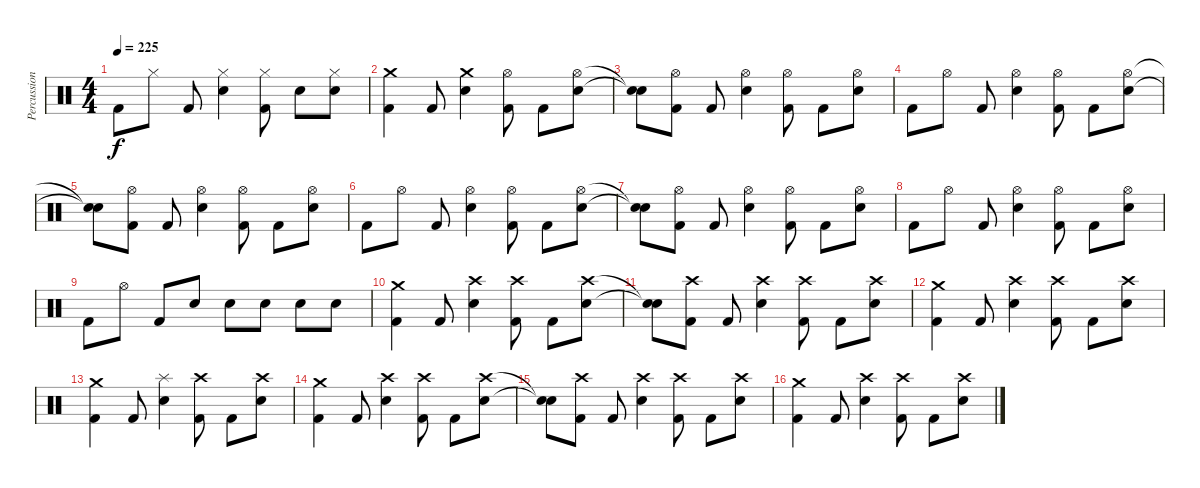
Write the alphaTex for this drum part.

\track ("Percussion" "Percussion") {instrument percussion}
\staff {score}
\articulation defaults
\ts (4 4)
\tempo 225
\clef neutral
\ks c "Kick (hit) 2".8{dy f} "Hi-Hat (closed)".8 "Kick (hit) 2".8
("Hi-Hat (closed)" "Snare (hit) 2").4 ("Hi-Hat (closed)" "Kick (hit) 2").8 "Snare (hit) 2".8 ("Hi-Hat (closed)" "Snare (hit) 2").8 |
("Crash medium (hit)" "Kick (hit) 2").4 "Kick (hit) 2".8 ("Crash medium (hit)" "Snare (hit) 2").4 ("Hi-Hat (open)" "Kick (hit) 2").8 "Kick (hit) 2".8 ("Hi-Hat (open)" "Snare (hit) 2").8 |
("Snare (hit)"{t} "Snare (hit)"{t}).8 ("Hi-Hat (open)" "Kick (hit) 2").8 "Kick (hit) 2".8 ("Hi-Hat (open)" "Snare (hit) 2").4 ("Hi-Hat (open)" "Kick (hit) 2").8 "Kick (hit) 2".8 ("Hi-Hat (open)" "Snare (hit) 2").8 |
"Kick (hit) 2".8 "Hi-Hat (open)".8 "Kick (hit) 2".8 ("Hi-Hat (open)" "Snare (hit) 2").4 ("Hi-Hat (open)" "Kick (hit) 2").8 "Kick (hit) 2".8 ("Hi-Hat (open)" "Snare (hit) 2").8 |
("Snare (hit)"{t} "Snare (hit)"{t}).8 ("Hi-Hat (open)" "Kick (hit) 2").8 "Kick (hit) 2".8 ("Hi-Hat (open)" "Snare (hit) 2").4 ("Hi-Hat (open)" "Kick (hit) 2").8 "Kick (hit) 2".8 ("Hi-Hat (open)" "Snare (hit) 2").8 |
"Kick (hit) 2".8 "Hi-Hat (open)".8 "Kick (hit) 2".8 ("Hi-Hat (open)" "Snare (hit) 2").4 ("Hi-Hat (open)" "Kick (hit) 2").8 "Kick (hit) 2".8 ("Hi-Hat (open)" "Snare (hit) 2").8 |
("Snare (hit)"{t} "Snare (hit)"{t}).8 ("Hi-Hat (open)" "Kick (hit) 2").8 "Kick (hit) 2".8 ("Hi-Hat (open)" "Snare (hit) 2").4 ("Hi-Hat (open)" "Kick (hit) 2").8 "Kick (hit) 2".8 ("Hi-Hat (open)" "Snare (hit) 2").8 |
"Kick (hit) 2".8 "Hi-Hat (open)".8 "Kick (hit) 2".8 ("Hi-Hat (open)" "Snare (hit) 2").4 ("Hi-Hat (open)" "Kick (hit) 2").8 "Kick (hit) 2".8 ("Hi-Hat (open)" "Snare (hit) 2").8 |
"Kick (hit) 2".8 "Hi-Hat (open)".8 "Kick (hit) 2".8 "Snare (hit) 2".8 "Snare (hit) 2".8 "Snare (hit) 2".8 "Snare (hit) 2".8 "Snare (hit) 2".8 |
("Crash medium (hit)" "Kick (hit) 2").4 "Kick (hit) 2".8 ("Crash high (hit)" "Snare (hit) 2").4 ("Crash high (hit)" "Kick (hit) 2").8 "Kick (hit) 2".8 ("Crash high (hit)" "Snare (hit) 2").8 |
("Snare (hit)"{t} "Snare (hit)"{t}).8 ("Crash high (hit)" "Kick (hit) 2").8 "Kick (hit) 2".8 ("Crash high (hit)" "Snare (hit) 2").4 ("Crash high (hit)" "Kick (hit) 2").8 "Kick (hit) 2".8 ("Crash high (hit)" "Snare (hit) 2").8 |
("Crash medium (hit)" "Kick (hit) 2").4 "Kick (hit) 2".8 ("Crash high (hit)" "Snare (hit) 2").4 ("Crash high (hit)" "Kick (hit) 2").8 "Kick (hit) 2".8 ("Crash high (hit)" "Snare (hit) 2").8 |
("Crash medium (hit)" "Kick (hit) 2").4 "Kick (hit) 2".8 ("Splash (hit)" "Snare (hit) 2").4 ("Crash high (hit)" "Kick (hit) 2").8 "Kick (hit) 2".8 ("Crash high (hit)" "Snare (hit) 2").8 |
("Crash medium (hit)" "Kick (hit) 2").4 "Kick (hit) 2".8 ("Crash high (hit)" "Snare (hit) 2").4 ("Crash high (hit)" "Kick (hit) 2").8 "Kick (hit) 2".8 ("Crash high (hit)" "Snare (hit) 2").8 |
("Snare (hit)"{t} "Snare (hit)"{t}).8 ("Crash high (hit)" "Kick (hit) 2").8 "Kick (hit) 2".8 ("Crash high (hit)" "Snare (hit) 2").4 ("Crash high (hit)" "Kick (hit) 2").8 "Kick (hit) 2".8 ("Crash high (hit)" "Snare (hit) 2").8 |
("Crash medium (hit)" "Kick (hit) 2").4 "Kick (hit) 2".8 ("Crash high (hit)" "Snare (hit) 2").4 ("Crash high (hit)" "Kick (hit) 2").8 "Kick (hit) 2".8 ("Crash high (hit)" "Snare (hit) 2").8
